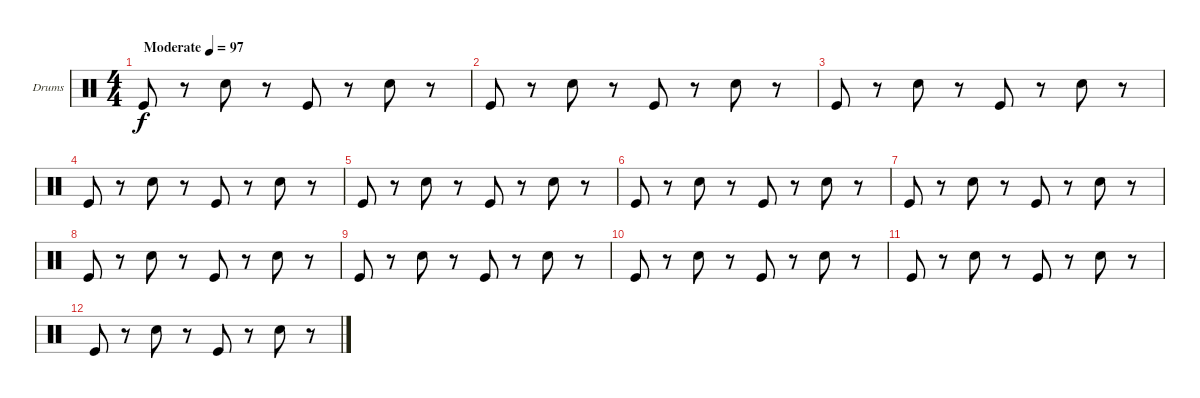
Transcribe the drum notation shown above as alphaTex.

\bracketExtendMode groupsimilarinstruments
\firstSystemTrackNameOrientation horizontal
\otherSystemsTrackNameOrientation horizontal
\track ("Drumkit" "Drums") {instrument percussion}
\staff {score}
\articulation defaults
\ts (4 4)
\beaming (8 2 2 2 2)
\tempo (97 "Moderate")
\clef neutral
\ks c "Kick (hit)".8{dy f}
r.8 "Snare (hit) 2".8 r.8 "Kick (hit)".8 r.8 "Snare (hit) 2".8 r.8 |
"Kick (hit)".8 r.8 "Snare (hit) 2".8 r.8 "Kick (hit)".8 r.8 "Snare (hit) 2".8 r.8 |
"Kick (hit)".8 r.8 "Snare (hit) 2".8 r.8 "Kick (hit)".8 r.8 "Snare (hit) 2".8 r.8 |
"Kick (hit)".8 r.8 "Snare (hit) 2".8 r.8 "Kick (hit)".8 r.8 "Snare (hit) 2".8 r.8 |
"Kick (hit)".8 r.8 "Snare (hit) 2".8 r.8 "Kick (hit)".8 r.8 "Snare (hit) 2".8 r.8 |
"Kick (hit)".8 r.8 "Snare (hit) 2".8 r.8 "Kick (hit)".8 r.8 "Snare (hit) 2".8 r.8 |
"Kick (hit)".8 r.8 "Snare (hit) 2".8 r.8 "Kick (hit)".8 r.8 "Snare (hit) 2".8 r.8 |
"Kick (hit)".8 r.8 "Snare (hit) 2".8 r.8 "Kick (hit)".8 r.8 "Snare (hit) 2".8 r.8 |
"Kick (hit)".8 r.8 "Snare (hit) 2".8 r.8 "Kick (hit)".8 r.8 "Snare (hit) 2".8 r.8 |
"Kick (hit)".8 r.8 "Snare (hit) 2".8 r.8 "Kick (hit)".8 r.8 "Snare (hit) 2".8 r.8 |
"Kick (hit)".8 r.8 "Snare (hit) 2".8 r.8 "Kick (hit)".8 r.8 "Snare (hit) 2".8 r.8 |
"Kick (hit)".8 r.8 "Snare (hit) 2".8 r.8 "Kick (hit)".8 r.8 "Snare (hit) 2".8 r.8
